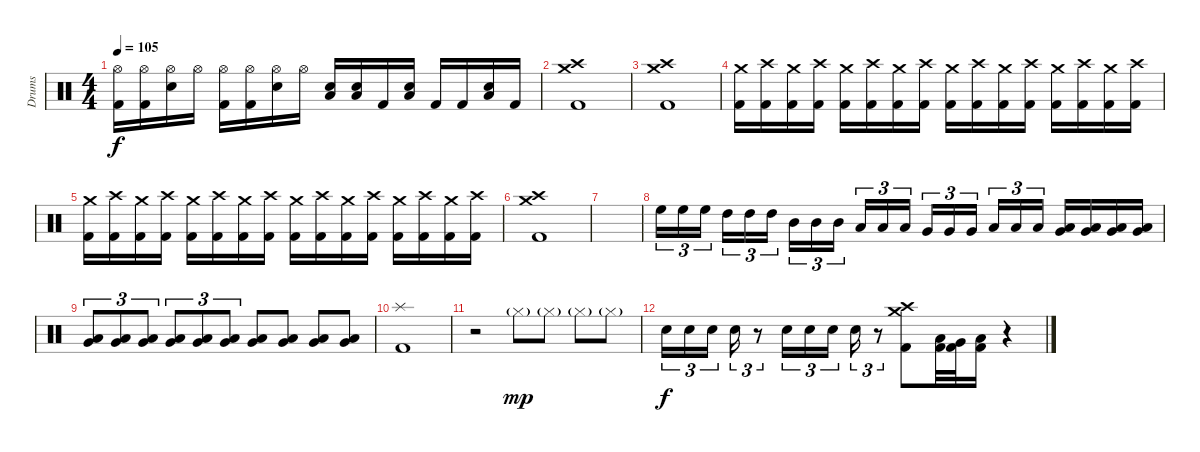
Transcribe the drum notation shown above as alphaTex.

\track ("Drums" "Drums") {instrument percussion}
\staff {score}
\articulation defaults
\ts (4 4)
\tempo 105
\clef neutral
\ks c
("Hi-Hat (open)" "Kick (hit) 2").16{dy f} ("Hi-Hat (open)" "Kick (hit) 2").16 ("Hi-Hat (open)" "Electric Snare (hit)").16 "Hi-Hat (open)".16 ("Hi-Hat (open)" "Kick (hit) 2").16 ("Hi-Hat (open)" "Kick (hit) 2").16 ("Hi-Hat (open)" "Electric Snare (hit)").16 "Hi-Hat (open)".16 ("Low Tom (hit)" "Electric Snare (hit)").16 ("Low Tom (hit)" "Electric Snare (hit)").16 "Kick (hit) 2".16 ("Low Tom (hit)" "Electric Snare (hit)").16 "Kick (hit) 2".16 "Kick (hit) 2".16 ("Low Tom (hit)" "Electric Snare (hit)").16 "Kick (hit) 2".16 |
("Crash high (hit)" "Crash medium (hit)" "Kick (hit) 2").1 |
("Crash high (hit)" "Crash medium (hit)" "Kick (hit) 2").1 |
("Crash medium (hit)" "Kick (hit) 2").16 ("Crash high (hit)" "Kick (hit) 2").16 ("Crash medium (hit)" "Kick (hit) 2").16 ("Crash high (hit)" "Kick (hit) 2").16 ("Crash medium (hit)" "Kick (hit) 2").16 ("Crash high (hit)" "Kick (hit) 2").16 ("Crash medium (hit)" "Kick (hit) 2").16 ("Crash high (hit)" "Kick (hit) 2").16 ("Crash medium (hit)" "Kick (hit) 2").16 ("Crash high (hit)" "Kick (hit) 2").16 ("Crash medium (hit)" "Kick (hit) 2").16 ("Crash high (hit)" "Kick (hit) 2").16 ("Crash medium (hit)" "Kick (hit) 2").16 ("Crash high (hit)" "Kick (hit) 2").16 ("Crash medium (hit)" "Kick (hit) 2").16 ("Crash high (hit)" "Kick (hit) 2").16 |
("Crash medium (hit)" "Kick (hit) 2").16 ("Crash high (hit)" "Kick (hit) 2").16 ("Crash medium (hit)" "Kick (hit) 2").16 ("Crash high (hit)" "Kick (hit) 2").16 ("Crash medium (hit)" "Kick (hit) 2").16 ("Crash high (hit)" "Kick (hit) 2").16 ("Crash medium (hit)" "Kick (hit) 2").16 ("Crash high (hit)" "Kick (hit) 2").16 ("Crash medium (hit)" "Kick (hit) 2").16 ("Crash high (hit)" "Kick (hit) 2").16 ("Crash medium (hit)" "Kick (hit) 2").16 ("Crash high (hit)" "Kick (hit) 2").16 ("Crash medium (hit)" "Kick (hit) 2").16 ("Crash high (hit)" "Kick (hit) 2").16 ("Crash medium (hit)" "Kick (hit) 2").16 ("Crash high (hit)" "Kick (hit) 2").16 |
("Crash medium (hit)" "Crash high (hit)" "Kick (hit) 2").1 |
|
"High Floor Tom (hit)".16{tu (3 2)} "High Floor Tom (hit)".16{tu (3 2)} "High Floor Tom (hit)".16{tu (3 2) beam splitsecondary} "High Tom (hit)".16{tu (3 2)} "High Tom (hit)".16{tu (3 2)} "High Tom (hit)".16{tu (3 2)} "Mid Tom (hit)".16{tu (3 2)} "Mid Tom (hit)".16{tu (3 2)} "Mid Tom (hit)".16{tu (3 2) beam splitsecondary} "Low Tom (hit)".16{tu (3 2)} "Low Tom (hit)".16{tu (3 2)} "Low Tom (hit)".16{tu (3 2)} "Very Low Tom (hit)".16{tu (3 2)} "Very Low Tom (hit)".16{tu (3 2)} "Very Low Tom (hit)".16{tu (3 2) beam splitsecondary} "Low Floor Tom (hit)".16{tu (3 2)} "Low Floor Tom (hit)".16{tu (3 2)} "Low Floor Tom (hit)".16{tu (3 2)} ("Very Low Tom (hit)" "Low Floor Tom (hit)").16 ("Very Low Tom (hit)" "Low Floor Tom (hit)").16 ("Very Low Tom (hit)" "Low Floor Tom (hit)").16 ("Very Low Tom (hit)" "Low Floor Tom (hit)").16 |
("Very Low Tom (hit)" "Low Floor Tom (hit)").8{tu (3 2)} ("Very Low Tom (hit)" "Low Floor Tom (hit)").8{tu (3 2)} ("Very Low Tom (hit)" "Low Floor Tom (hit)").8{tu (3 2)} ("Very Low Tom (hit)" "Low Floor Tom (hit)").8{tu (3 2)} ("Very Low Tom (hit)" "Low Floor Tom (hit)").8{tu (3 2)} ("Very Low Tom (hit)" "Low Floor Tom (hit)").8{tu (3 2)} ("Very Low Tom (hit)" "Low Floor Tom (hit)").8 ("Very Low Tom (hit)" "Low Floor Tom (hit)").8 ("Very Low Tom (hit)" "Low Floor Tom (hit)").8 ("Very Low Tom (hit)" "Low Floor Tom (hit)").8 |
("Splash (hit)" "Kick (hit) 2").1 |
r.2 "Hi-Hat (closed)"{g}.8{dy mp} "Hi-Hat (closed)"{g}.8 "Hi-Hat (closed)"{g}.8 "Hi-Hat (closed)"{g}.8 |
"Electric Snare (hit)".16{tu (3 2) dy f} "Electric Snare (hit)".16{tu (3 2)} "Electric Snare (hit)".16{tu (3 2) beam splitsecondary} "Electric Snare (hit)".16{tu (3 2)} r.8{tu (3 2)} "Electric Snare (hit)".16{tu (3 2)} "Electric Snare (hit)".16{tu (3 2)} "Electric Snare (hit)".16{tu (3 2) beam splitsecondary} "Electric Snare (hit)".16{tu (3 2)} r.8{tu (3 2)} ("Crash medium (hit)" "Crash high (hit)" "Kick (hit) 2").8 ("Low Tom (hit)" "Kick (hit) 2").32 ("Very Low Tom (hit)" "Kick (hit) 2").32 ("Low Floor Tom (hit)" "Kick (hit) 2").16 r.4
